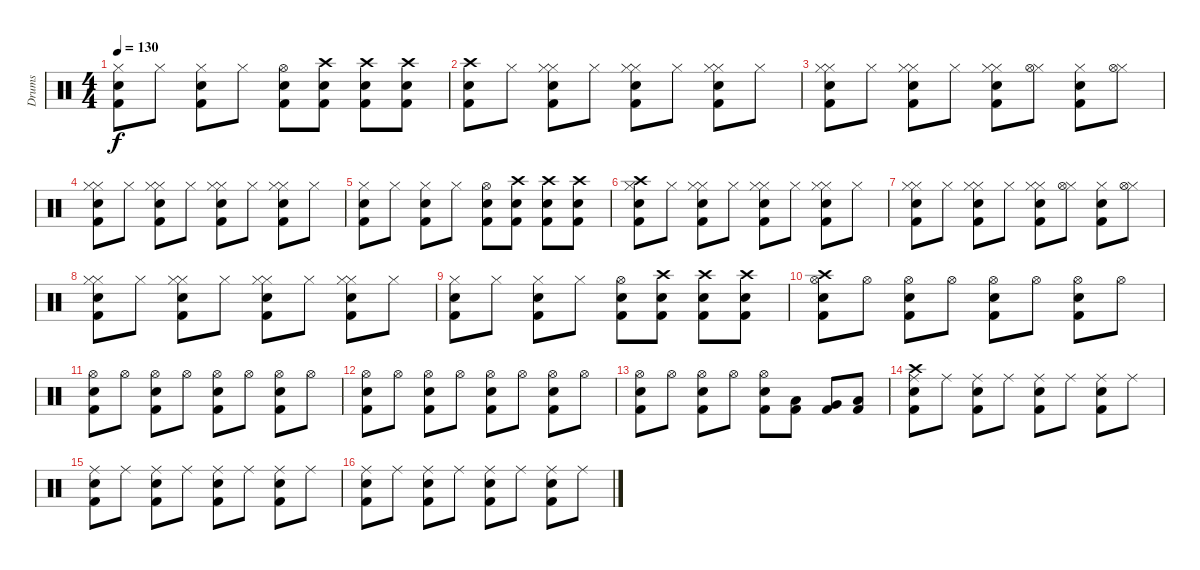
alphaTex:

\track ("Drums" "Drums") {instrument percussion}
\staff {score}
\articulation defaults
\ts (4 4)
\tempo 130
\clef neutral
\ks c
("Hi-Hat (closed)" "Electric Snare (hit)" "Kick (hit) 2").8{dy f} "Hi-Hat (closed)".8 ("Hi-Hat (closed)" "Electric Snare (hit)" "Kick (hit) 2").8 "Hi-Hat (closed)".8 ("Hi-Hat (open)" "Electric Snare (hit)" "Kick (hit) 2").8 ("Crash high (hit)" "Electric Snare (hit)" "Kick (hit) 2").8 ("Crash high (hit)" "Electric Snare (hit)" "Kick (hit) 2").8 ("Crash high (hit)" "Electric Snare (hit)" "Kick (hit) 2").8 |
("Crash high (hit)" "Electric Snare (hit)" "Kick (hit) 2").8 "Hi-Hat (closed)".8 ("Hi-Hat (closed)" "Hi-Hat (closed)" "Electric Snare (hit)" "Kick (hit) 2").8 "Hi-Hat (closed)".8 ("Hi-Hat (closed)" "Hi-Hat (closed)" "Electric Snare (hit)" "Kick (hit) 2").8 "Hi-Hat (closed)".8 ("Hi-Hat (closed)" "Hi-Hat (closed)" "Electric Snare (hit)" "Kick (hit) 2").8 "Hi-Hat (closed)".8 |
("Hi-Hat (closed)" "Hi-Hat (closed)" "Electric Snare (hit)" "Kick (hit) 2").8 "Hi-Hat (closed)".8 ("Hi-Hat (closed)" "Hi-Hat (closed)" "Electric Snare (hit)" "Kick (hit) 2").8 "Hi-Hat (closed)".8 ("Hi-Hat (closed)" "Hi-Hat (closed)" "Electric Snare (hit)" "Kick (hit) 2").8 ("Hi-Hat (closed)" "Hi-Hat (open)").8 ("Hi-Hat (closed)" "Electric Snare (hit)" "Kick (hit) 2").8 ("Hi-Hat (closed)" "Hi-Hat (open)").8 |
("Hi-Hat (closed)" "Hi-Hat (closed)" "Electric Snare (hit)" "Kick (hit) 2").8 "Hi-Hat (closed)".8 ("Hi-Hat (closed)" "Hi-Hat (closed)" "Electric Snare (hit)" "Kick (hit) 2").8 "Hi-Hat (closed)".8 ("Hi-Hat (closed)" "Hi-Hat (closed)" "Electric Snare (hit)" "Kick (hit) 2").8 "Hi-Hat (closed)".8 ("Hi-Hat (closed)" "Hi-Hat (closed)" "Electric Snare (hit)" "Kick (hit) 2").8 "Hi-Hat (closed)".8 |
("Hi-Hat (closed)" "Electric Snare (hit)" "Kick (hit) 2").8 "Hi-Hat (closed)".8 ("Hi-Hat (closed)" "Electric Snare (hit)" "Kick (hit) 2").8 "Hi-Hat (closed)".8 ("Hi-Hat (open)" "Electric Snare (hit)" "Kick (hit) 2").8 ("Crash high (hit)" "Electric Snare (hit)" "Kick (hit) 2").8 ("Crash high (hit)" "Electric Snare (hit)" "Kick (hit) 2").8 ("Crash high (hit)" "Electric Snare (hit)" "Kick (hit) 2").8 |
("Hi-Hat (closed)" "Crash high (hit)" "Electric Snare (hit)" "Kick (hit) 2").8 "Hi-Hat (closed)".8 ("Hi-Hat (closed)" "Hi-Hat (closed)" "Electric Snare (hit)" "Kick (hit) 2").8 "Hi-Hat (closed)".8 ("Hi-Hat (closed)" "Hi-Hat (closed)" "Electric Snare (hit)" "Kick (hit) 2").8 "Hi-Hat (closed)".8 ("Hi-Hat (closed)" "Hi-Hat (closed)" "Electric Snare (hit)" "Kick (hit) 2").8 "Hi-Hat (closed)".8 |
("Hi-Hat (closed)" "Hi-Hat (closed)" "Electric Snare (hit)" "Kick (hit) 2").8 "Hi-Hat (closed)".8 ("Hi-Hat (closed)" "Hi-Hat (closed)" "Electric Snare (hit)" "Kick (hit) 2").8 "Hi-Hat (closed)".8 ("Hi-Hat (closed)" "Hi-Hat (closed)" "Electric Snare (hit)" "Kick (hit) 2").8 ("Hi-Hat (closed)" "Hi-Hat (open)").8 ("Hi-Hat (closed)" "Electric Snare (hit)" "Kick (hit) 2").8 ("Hi-Hat (closed)" "Hi-Hat (open)").8 |
("Hi-Hat (closed)" "Hi-Hat (closed)" "Electric Snare (hit)" "Kick (hit) 2").8 "Hi-Hat (closed)".8 ("Hi-Hat (closed)" "Hi-Hat (closed)" "Electric Snare (hit)" "Kick (hit) 2").8 "Hi-Hat (closed)".8 ("Hi-Hat (closed)" "Hi-Hat (closed)" "Electric Snare (hit)" "Kick (hit) 2").8 "Hi-Hat (closed)".8 ("Hi-Hat (closed)" "Hi-Hat (closed)" "Electric Snare (hit)" "Kick (hit) 2").8 "Hi-Hat (closed)".8 |
("Hi-Hat (closed)" "Electric Snare (hit)" "Kick (hit) 2").8 "Hi-Hat (closed)".8 ("Hi-Hat (closed)" "Electric Snare (hit)" "Kick (hit) 2").8 "Hi-Hat (closed)".8 ("Hi-Hat (open)" "Electric Snare (hit)" "Kick (hit) 2").8 ("Crash high (hit)" "Electric Snare (hit)" "Kick (hit) 2").8 ("Crash high (hit)" "Electric Snare (hit)" "Kick (hit) 2").8 ("Crash high (hit)" "Electric Snare (hit)" "Kick (hit) 2").8 |
("Hi-Hat (open)" "Crash high (hit)" "Electric Snare (hit)" "Kick (hit) 2").8 "Hi-Hat (open)".8 ("Hi-Hat (open)" "Electric Snare (hit)" "Kick (hit) 2").8 "Hi-Hat (open)".8 ("Hi-Hat (open)" "Electric Snare (hit)" "Kick (hit) 2").8 "Hi-Hat (open)".8 ("Hi-Hat (open)" "Electric Snare (hit)" "Kick (hit) 2").8 "Hi-Hat (open)".8 |
("Hi-Hat (open)" "Electric Snare (hit)" "Kick (hit) 2").8 "Hi-Hat (open)".8 ("Hi-Hat (open)" "Electric Snare (hit)" "Kick (hit) 2").8 "Hi-Hat (open)".8 ("Hi-Hat (open)" "Electric Snare (hit)" "Kick (hit) 2").8 "Hi-Hat (open)".8 ("Hi-Hat (open)" "Electric Snare (hit)" "Kick (hit) 2").8 "Hi-Hat (open)".8 |
("Hi-Hat (open)" "Electric Snare (hit)" "Kick (hit) 2").8 "Hi-Hat (open)".8 ("Hi-Hat (open)" "Electric Snare (hit)" "Kick (hit) 2").8 "Hi-Hat (open)".8 ("Hi-Hat (open)" "Electric Snare (hit)" "Kick (hit) 2").8 "Hi-Hat (open)".8 ("Hi-Hat (open)" "Electric Snare (hit)" "Kick (hit) 2").8 "Hi-Hat (open)".8 |
("Hi-Hat (open)" "Electric Snare (hit)" "Kick (hit) 2").8 "Hi-Hat (open)".8 ("Hi-Hat (open)" "Electric Snare (hit)" "Kick (hit) 2").8 "Hi-Hat (open)".8 ("Hi-Hat (open)" "Electric Snare (hit)" "Kick (hit) 2").8 ("Low Tom (hit)" "Kick (hit) 2").8 ("Very Low Tom (hit)" "Kick (hit) 2").8 ("Low Floor Tom (hit)" "Kick (hit) 2").8 |
("Ride (middle)" "Crash high (hit)" "Electric Snare (hit)" "Kick (hit) 2").8 "Ride (middle)".8 ("Ride (middle)" "Electric Snare (hit)" "Kick (hit) 2").8 "Ride (middle)".8 ("Ride (middle)" "Electric Snare (hit)" "Kick (hit) 2").8 "Ride (middle)".8 ("Ride (middle)" "Electric Snare (hit)" "Kick (hit) 2").8 "Ride (middle)".8 |
("Ride (middle)" "Electric Snare (hit)" "Kick (hit) 2").8 "Ride (middle)".8 ("Ride (middle)" "Electric Snare (hit)" "Kick (hit) 2").8 "Ride (middle)".8 ("Ride (middle)" "Electric Snare (hit)" "Kick (hit) 2").8 "Ride (middle)".8 ("Ride (middle)" "Electric Snare (hit)" "Kick (hit) 2").8 "Ride (middle)".8 |
("Ride (middle)" "Electric Snare (hit)" "Kick (hit) 2").8 "Ride (middle)".8 ("Ride (middle)" "Electric Snare (hit)" "Kick (hit) 2").8 "Ride (middle)".8 ("Ride (middle)" "Electric Snare (hit)" "Kick (hit) 2").8 "Ride (middle)".8 ("Ride (middle)" "Electric Snare (hit)" "Kick (hit) 2").8 "Ride (middle)".8
